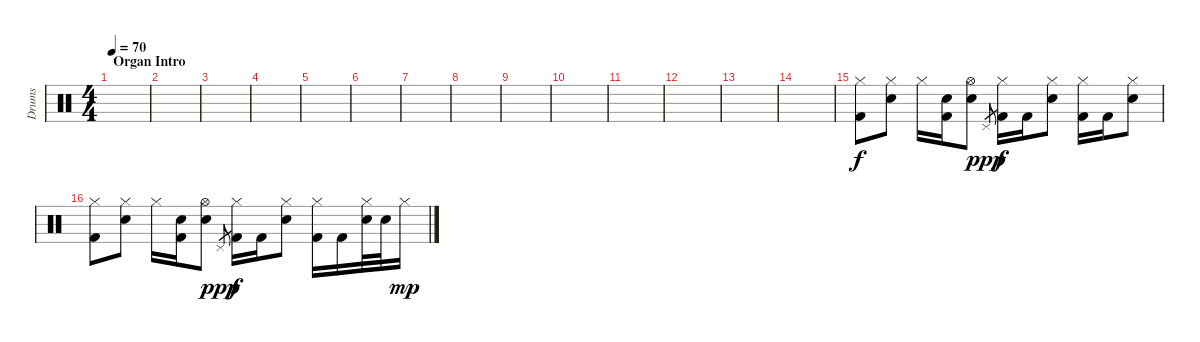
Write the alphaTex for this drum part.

\track ("Drums" "Drums") {instrument percussion}
\staff {score}
\articulation defaults
\ts (4 4)
\section ("" "Organ Intro")
\tempo 70
\clef neutral
\ks c
|
|
|
|
|
|
|
|
|
|
|
|
|
|
("Hi-Hat (closed)" "Kick (hit) 2").8 ("Hi-Hat (closed)" "Electric Snare (hit)").8 "Hi-Hat (closed)".16 ("Snare (hit)" "Kick (hit) 2").16 ("Hi-Hat (open)" "Electric Snare (hit)").8 "Pedal Hi-Hat (hit)".8{gr dy ppp} ("Hi-Hat (closed)" "Kick (hit) 2").16{dy f} "Kick (hit) 2".16 ("Hi-Hat (closed)" "Electric Snare (hit)").8 ("Hi-Hat (closed)" "Kick (hit) 2").16 "Kick (hit) 2".16 ("Hi-Hat (closed)" "Electric Snare (hit)").8 |
("Hi-Hat (closed)" "Kick (hit) 2").8 ("Hi-Hat (closed)" "Electric Snare (hit)").8 "Hi-Hat (closed)".16 ("Snare (hit)" "Kick (hit) 2").16 ("Hi-Hat (open)" "Electric Snare (hit)").8 "Pedal Hi-Hat (hit)".8{gr dy ppp} ("Hi-Hat (closed)" "Kick (hit) 2").16{dy f} "Kick (hit) 2".16 ("Hi-Hat (closed)" "Electric Snare (hit)").8 ("Hi-Hat (closed)" "Kick (hit) 2").16 "Kick (hit) 2".16 ("Hi-Hat (closed)" "Electric Snare (hit)").32 "Electric Snare (hit)".32 "Hi-Hat (closed)".16{dy mp}
